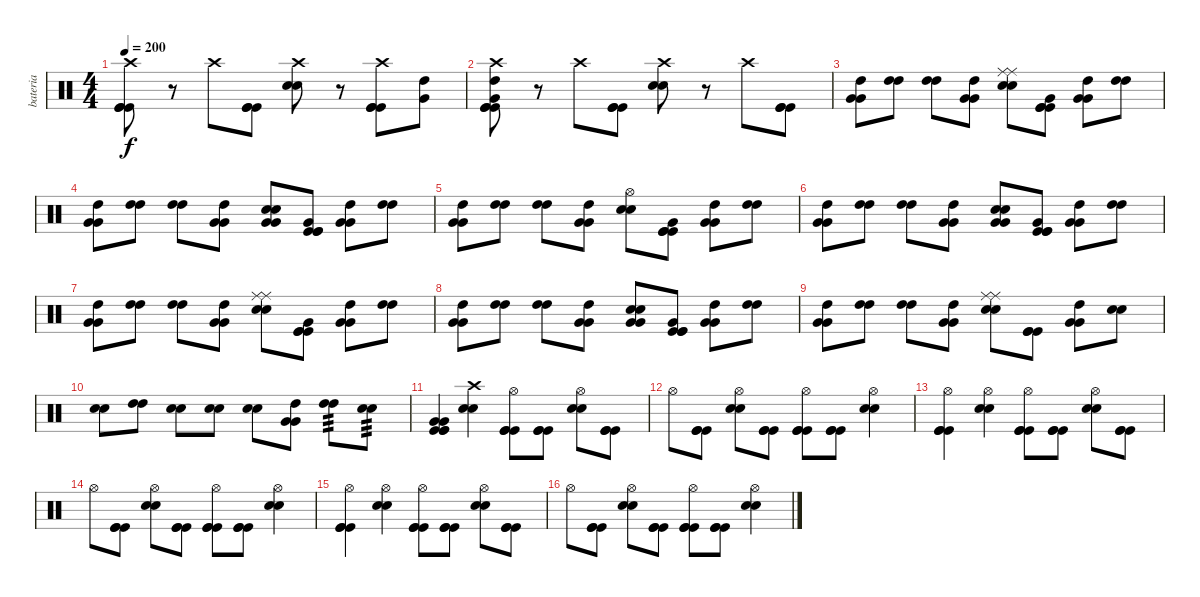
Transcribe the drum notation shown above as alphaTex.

\track ("bateria" "bateria") {instrument percussion}
\staff {score}
\articulation defaults
\ts (4 4)
\tempo 200
\clef neutral
\ks c
("Crash high (hit)" "Kick (hit)" "Kick (hit)" "Kick (hit)").8{dy f} r.8 "Crash high (hit)".8 ("Kick (hit)" "Kick (hit)" "Kick (hit)").8 ("Crash high (hit)" "Electric Snare (hit)" "Electric Snare (hit)").8 r.8 ("Crash high (hit)" "Kick (hit)" "Kick (hit)" "Kick (hit)").8 ("High Tom (hit)" "Very Low Tom (hit)").8 |
("Crash high (hit)" "High Tom (hit)" "Very Low Tom (hit)" "Kick (hit)" "Kick (hit)" "Kick (hit)").8 r.8 "Crash high (hit)".8 ("Kick (hit)" "Kick (hit)" "Kick (hit)").8 ("Crash high (hit)" "Electric Snare (hit)" "Electric Snare (hit)").8 r.8 "Crash high (hit)".8 ("Kick (hit)" "Kick (hit)" "Kick (hit)").8 |
("High Tom (hit)" "Very Low Tom (hit)" "Very Low Tom (hit)").8 ("High Tom (hit)" "High Tom (hit)").8 ("High Tom (hit)" "High Tom (hit)").8 ("High Tom (hit)" "Very Low Tom (hit)" "Very Low Tom (hit)").8 ("Ride (middle)" "Ride (middle)" "Electric Snare (hit)" "Electric Snare (hit)").8 ("Very Low Tom (hit)" "Kick (hit)" "Kick (hit)" "Kick (hit)").8 ("High Tom (hit)" "Very Low Tom (hit)" "Very Low Tom (hit)").8 ("High Tom (hit)" "High Tom (hit)").8 |
("High Tom (hit)" "Very Low Tom (hit)" "Very Low Tom (hit)").8 ("High Tom (hit)" "High Tom (hit)").8 ("High Tom (hit)" "High Tom (hit)").8 ("High Tom (hit)" "Very Low Tom (hit)" "Very Low Tom (hit)").8 ("Very Low Tom (hit)" "Very Low Tom (hit)" "Electric Snare (hit)" "Electric Snare (hit)").8 ("Very Low Tom (hit)" "Kick (hit)" "Kick (hit)" "Kick (hit)").8 ("High Tom (hit)" "Very Low Tom (hit)" "Very Low Tom (hit)").8 ("High Tom (hit)" "High Tom (hit)").8 |
("High Tom (hit)" "Very Low Tom (hit)" "Very Low Tom (hit)").8 ("High Tom (hit)" "High Tom (hit)").8 ("High Tom (hit)" "High Tom (hit)").8 ("High Tom (hit)" "Very Low Tom (hit)" "Very Low Tom (hit)").8 ("Hi-Hat (open)" "Electric Snare (hit)" "Electric Snare (hit)").8 ("Very Low Tom (hit)" "Kick (hit)" "Kick (hit)" "Kick (hit)").8 ("High Tom (hit)" "Very Low Tom (hit)" "Very Low Tom (hit)").8 ("High Tom (hit)" "High Tom (hit)").8 |
("High Tom (hit)" "Very Low Tom (hit)" "Very Low Tom (hit)").8 ("High Tom (hit)" "High Tom (hit)").8 ("High Tom (hit)" "High Tom (hit)").8 ("High Tom (hit)" "Very Low Tom (hit)" "Very Low Tom (hit)").8 ("Very Low Tom (hit)" "Very Low Tom (hit)" "Electric Snare (hit)" "Electric Snare (hit)").8 ("Very Low Tom (hit)" "Kick (hit)" "Kick (hit)" "Kick (hit)").8 ("High Tom (hit)" "Very Low Tom (hit)" "Very Low Tom (hit)").8 ("High Tom (hit)" "High Tom (hit)").8 |
("High Tom (hit)" "Very Low Tom (hit)" "Very Low Tom (hit)").8 ("High Tom (hit)" "High Tom (hit)").8 ("High Tom (hit)" "High Tom (hit)").8 ("High Tom (hit)" "Very Low Tom (hit)" "Very Low Tom (hit)").8 ("Ride (middle)" "Ride (middle)" "Electric Snare (hit)" "Electric Snare (hit)").8 ("Very Low Tom (hit)" "Kick (hit)" "Kick (hit)" "Kick (hit)").8 ("High Tom (hit)" "Very Low Tom (hit)" "Very Low Tom (hit)").8 ("High Tom (hit)" "High Tom (hit)").8 |
("High Tom (hit)" "Very Low Tom (hit)" "Very Low Tom (hit)").8 ("High Tom (hit)" "High Tom (hit)").8 ("High Tom (hit)" "High Tom (hit)").8 ("High Tom (hit)" "Very Low Tom (hit)" "Very Low Tom (hit)").8 ("Very Low Tom (hit)" "Very Low Tom (hit)" "Electric Snare (hit)" "Electric Snare (hit)").8 ("Very Low Tom (hit)" "Kick (hit)" "Kick (hit)" "Kick (hit)").8 ("High Tom (hit)" "Very Low Tom (hit)" "Very Low Tom (hit)").8 ("High Tom (hit)" "High Tom (hit)").8 |
("High Tom (hit)" "Very Low Tom (hit)" "Very Low Tom (hit)").8 ("High Tom (hit)" "High Tom (hit)").8 ("High Tom (hit)" "High Tom (hit)").8 ("High Tom (hit)" "Very Low Tom (hit)" "Very Low Tom (hit)").8 ("Ride (middle)" "Ride (middle)" "Electric Snare (hit)" "Electric Snare (hit)").8 ("Kick (hit)" "Kick (hit)" "Kick (hit)").8 ("High Tom (hit)" "Very Low Tom (hit)" "Very Low Tom (hit)").8 ("Electric Snare (hit)" "Electric Snare (hit)").8 |
("Electric Snare (hit)" "Electric Snare (hit)").8 ("High Tom (hit)" "High Tom (hit)").8 ("Electric Snare (hit)" "Electric Snare (hit)").8 ("Electric Snare (hit)" "Electric Snare (hit)").8 ("Electric Snare (hit)" "Electric Snare (hit)").8 ("High Tom (hit)" "Very Low Tom (hit)" "Very Low Tom (hit)").8 ("High Tom (hit)" "High Tom (hit)").8{tp 3} ("Electric Snare (hit)" "Electric Snare (hit)").8{tp 3} |
("Very Low Tom (hit)" "Very Low Tom (hit)" "Kick (hit)" "Kick (hit)" "Kick (hit)").4 ("Crash high (hit)" "Electric Snare (hit)" "Electric Snare (hit)").4 ("Hi-Hat (open)" "Kick (hit)" "Kick (hit)" "Kick (hit)").8 ("Kick (hit)" "Kick (hit)" "Kick (hit)").8 ("Hi-Hat (open)" "Electric Snare (hit)" "Electric Snare (hit)").8 ("Kick (hit)" "Kick (hit)" "Kick (hit)").8 |
"Hi-Hat (open)".8 ("Kick (hit)" "Kick (hit)" "Kick (hit)").8 ("Hi-Hat (open)" "Electric Snare (hit)" "Electric Snare (hit)").8 ("Kick (hit)" "Kick (hit)" "Kick (hit)").8 ("Hi-Hat (open)" "Kick (hit)" "Kick (hit)" "Kick (hit)").8 ("Kick (hit)" "Kick (hit)" "Kick (hit)").8 ("Hi-Hat (open)" "Electric Snare (hit)" "Electric Snare (hit)").4 |
("Hi-Hat (open)" "Kick (hit)" "Kick (hit)" "Kick (hit)").4 ("Hi-Hat (open)" "Electric Snare (hit)" "Electric Snare (hit)").4 ("Hi-Hat (open)" "Kick (hit)" "Kick (hit)" "Kick (hit)").8 ("Kick (hit)" "Kick (hit)" "Kick (hit)").8 ("Hi-Hat (open)" "Electric Snare (hit)" "Electric Snare (hit)").8 ("Kick (hit)" "Kick (hit)" "Kick (hit)").8 |
"Hi-Hat (open)".8 ("Kick (hit)" "Kick (hit)" "Kick (hit)").8 ("Hi-Hat (open)" "Electric Snare (hit)" "Electric Snare (hit)").8 ("Kick (hit)" "Kick (hit)" "Kick (hit)").8 ("Hi-Hat (open)" "Kick (hit)" "Kick (hit)" "Kick (hit)").8 ("Kick (hit)" "Kick (hit)" "Kick (hit)").8 ("Hi-Hat (open)" "Electric Snare (hit)" "Electric Snare (hit)").4 |
("Hi-Hat (open)" "Kick (hit)" "Kick (hit)" "Kick (hit)").4 ("Hi-Hat (open)" "Electric Snare (hit)" "Electric Snare (hit)").4 ("Hi-Hat (open)" "Kick (hit)" "Kick (hit)" "Kick (hit)").8 ("Kick (hit)" "Kick (hit)" "Kick (hit)").8 ("Hi-Hat (open)" "Electric Snare (hit)" "Electric Snare (hit)").8 ("Kick (hit)" "Kick (hit)" "Kick (hit)").8 |
"Hi-Hat (open)".8 ("Kick (hit)" "Kick (hit)" "Kick (hit)").8 ("Hi-Hat (open)" "Electric Snare (hit)" "Electric Snare (hit)").8 ("Kick (hit)" "Kick (hit)" "Kick (hit)").8 ("Hi-Hat (open)" "Kick (hit)" "Kick (hit)" "Kick (hit)").8 ("Kick (hit)" "Kick (hit)" "Kick (hit)").8 ("Hi-Hat (open)" "Electric Snare (hit)" "Electric Snare (hit)").4
